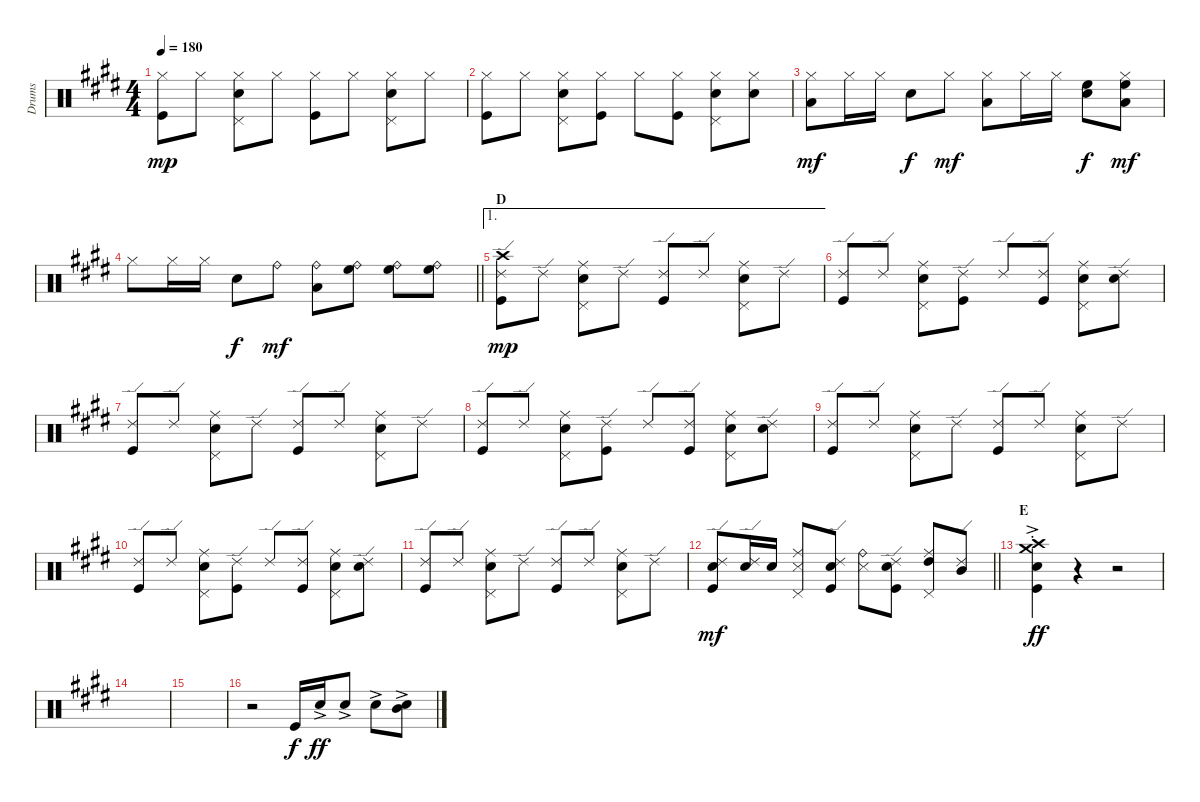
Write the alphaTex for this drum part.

\track ("Drums" "Drums") {instrument percussion}
\staff {score}
\articulation defaults
\ts (4 4)
\tempo 180
\clef neutral
\ks e
("Hi-Hat (closed)" "Kick (hit)").8{dy mp} "Hi-Hat (closed)".8 ("Hi-Hat (closed)" "Snare (hit) 2" "Pedal Hi-Hat (hit)").8 "Hi-Hat (closed)".8 ("Hi-Hat (closed)" "Kick (hit)").8 "Hi-Hat (closed)".8 ("Hi-Hat (closed)" "Snare (hit) 2" "Pedal Hi-Hat (hit)").8 "Hi-Hat (closed)".8 |
("Hi-Hat (closed)" "Kick (hit)").8 "Hi-Hat (closed)".8 ("Hi-Hat (closed)" "Snare (hit) 2" "Pedal Hi-Hat (hit)").8 ("Hi-Hat (closed)" "Kick (hit)").8 "Hi-Hat (closed)".8 ("Hi-Hat (closed)" "Kick (hit)").8 ("Hi-Hat (closed)" "Snare (hit) 2" "Pedal Hi-Hat (hit)").8 ("Hi-Hat (closed)" "Snare (hit) 2").8 |
("Hi-Hat (closed)" "Low Tom (hit)").8{dy mf} "Hi-Hat (closed)".16 "Hi-Hat (closed)".16 "Snare (hit) 2".8{dy f} "Hi-Hat (closed)".8{dy mf} ("Hi-Hat (closed)" "Low Tom (hit)").8 "Hi-Hat (closed)".16 "Hi-Hat (closed)".16 ("High Floor Tom (hit)" "Snare (hit) 2").8{dy f} ("Hi-Hat (closed)" "High Floor Tom (hit)" "Low Tom (hit)").8{dy mf} |
\barLineRight lightlight "Hi-Hat (closed)".8 "Hi-Hat (closed)".16 "Hi-Hat (closed)".16 "Snare (hit) 2".8{dy f} "Ride (bell)".8{dy mf}
("Ride (bell)" "Low Tom (hit)").8 ("Ride (bell)" "High Floor Tom (hit)").8 ("Ride (bell)" "High Floor Tom (hit)").8 ("Ride (bell)" "High Floor Tom (hit)").8 |
\ae 1
\section ("" "D")
("Ride (edge) 2" "Crash high (hit)" "Kick (hit)").8{dy mp} "Ride (edge) 2".8 ("Ride (middle)" "Snare (hit) 2" "Pedal Hi-Hat (hit)").8 "Ride (edge) 2".8 ("Ride (edge) 2" "Kick (hit)").8 "Ride (edge) 2".8 ("Ride (middle)" "Snare (hit) 2" "Pedal Hi-Hat (hit)").8 "Ride (edge) 2".8 |
("Ride (edge) 2" "Kick (hit)").8 "Ride (edge) 2".8 ("Ride (middle)" "Snare (hit) 2" "Pedal Hi-Hat (hit)").8 ("Ride (edge) 2" "Kick (hit)").8 "Ride (edge) 2".8 ("Ride (edge) 2" "Kick (hit)").8 ("Ride (middle)" "Snare (hit) 2" "Pedal Hi-Hat (hit)").8 ("Ride (edge) 2" "Snare (hit) 2").8 |
("Ride (edge) 2" "Kick (hit)").8 "Ride (edge) 2".8 ("Ride (middle)" "Snare (hit) 2" "Pedal Hi-Hat (hit)").8 "Ride (edge) 2".8 ("Ride (edge) 2" "Kick (hit)").8 "Ride (edge) 2".8 ("Ride (middle)" "Snare (hit) 2" "Pedal Hi-Hat (hit)").8 "Ride (edge) 2".8 |
("Ride (edge) 2" "Kick (hit)").8 "Ride (edge) 2".8 ("Ride (middle)" "Snare (hit) 2" "Pedal Hi-Hat (hit)").8 ("Ride (edge) 2" "Kick (hit)").8 "Ride (edge) 2".8 ("Ride (edge) 2" "Kick (hit)").8 ("Ride (middle)" "Snare (hit) 2" "Pedal Hi-Hat (hit)").8 ("Ride (edge) 2" "Snare (hit) 2").8 |
("Ride (edge) 2" "Kick (hit)").8 "Ride (edge) 2".8 ("Ride (middle)" "Snare (hit) 2" "Pedal Hi-Hat (hit)").8 "Ride (edge) 2".8 ("Ride (edge) 2" "Kick (hit)").8 "Ride (edge) 2".8 ("Ride (middle)" "Snare (hit) 2" "Pedal Hi-Hat (hit)").8 "Ride (edge) 2".8 |
("Ride (edge) 2" "Kick (hit)").8 "Ride (edge) 2".8 ("Ride (middle)" "Snare (hit) 2" "Pedal Hi-Hat (hit)").8 ("Ride (edge) 2" "Kick (hit)").8 "Ride (edge) 2".8 ("Ride (edge) 2" "Kick (hit)").8 ("Ride (middle)" "Snare (hit) 2" "Pedal Hi-Hat (hit)").8 ("Ride (edge) 2" "Snare (hit) 2").8 |
("Ride (edge) 2" "Kick (hit)").8 "Ride (edge) 2".8 ("Ride (middle)" "Snare (hit) 2" "Pedal Hi-Hat (hit)").8 "Ride (edge) 2".8 ("Ride (edge) 2" "Kick (hit)").8 "Ride (edge) 2".8 ("Ride (middle)" "Snare (hit) 2" "Pedal Hi-Hat (hit)").8 "Ride (edge) 2".8 |
\barLineRight lightlight
("Ride (edge) 2" "Snare (hit) 2" "Kick (hit)").8{dy mf} ("Ride (edge) 2" "Snare (hit) 2").16 "Snare (hit) 2".16 ("Ride (middle)" "Snare (side stick) 3" "Pedal Hi-Hat (hit)").8 ("Ride (edge) 2" "Snare (hit) 2" "Kick (hit)").8 ("Ride (bell)" "Snare (side stick) 3").8 ("Ride (edge) 2" "Snare (hit) 2" "Kick (hit)").8 ("Ride (middle)" "High Tom (hit)" "Pedal Hi-Hat (hit)").8 ("Ride (edge) 2" "Mid Tom (hit)").8 |
\section ("" "E")
("Crash high (hit)"{ac st} "Crash medium (hit)"{ac st} "Snare (hit) 2"{ac st} "Kick (hit)"{ac st}).4{dy ff} r.4 r.2 |
|
|
r.2 "Kick (hit)".16{dy f} "Snare (hit) 2"{ac}.16{dy ff} "Snare (hit) 2"{ac}.8 "Snare (hit) 2"{ac}.8 ("Mid Tom (hit)"{ac} "Snare (hit) 2").8
